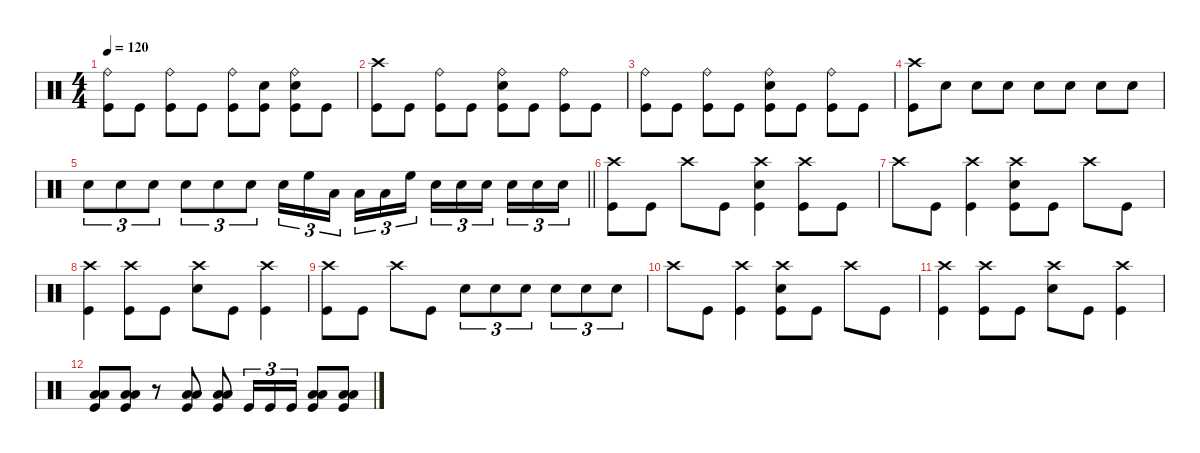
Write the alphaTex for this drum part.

\defaultSystemsLayout 4
\hideDynamics
\bracketExtendMode nobrackets
\singleTrackTrackNamePolicy hidden
\multiTrackTrackNamePolicy hidden
\firstSystemTrackNameMode fullname
\firstSystemTrackNameOrientation horizontal
\otherSystemsTrackNameOrientation horizontal
\track ("Drums" "drm.") {instrument percussion}
\staff {score}
\articulation defaults
\ts (4 4)
\tempo 120
\clef neutral
\ks c
("Kick (hit)" "Ride (bell)").8{dy f beam Down} "Kick (hit)".8{beam Down} ("Kick (hit)" "Ride (bell)").8{beam Down} "Kick (hit)".8{beam Down} ("Kick (hit)" "Ride (bell)").8{beam Down} ("Kick (hit)" "Snare (hit) 2").8{beam Down} ("Kick (hit)" "Snare (hit) 2" "Ride (bell)").8{beam Down} "Kick (hit)".8{beam Down} |
("Crash high (hit)" "Kick (hit)").8{beam Down} "Kick (hit)".8{beam Down} ("Ride (bell)" "Kick (hit)").8{beam Down} "Kick (hit)".8{beam Down} ("Snare (hit) 2" "Ride (bell)" "Kick (hit)").8{beam Down} "Kick (hit)".8{beam Down} ("Ride (bell)" "Kick (hit)").8{beam Down} "Kick (hit)".8{beam Down} |
("Kick (hit)" "Ride (bell)").8{beam Down} "Kick (hit)".8{beam Down} ("Kick (hit)" "Ride (bell)").8{beam Down} "Kick (hit)".8{beam Down} ("Kick (hit)" "Snare (hit) 2" "Ride (bell)").8{beam Down} "Kick (hit)".8{beam Down} ("Kick (hit)" "Ride (bell)").8{beam Down} "Kick (hit)".8{beam Down} |
("Kick (hit)" "Crash high (hit)").8{beam Down} "Snare (hit) 2".8{beam Down} "Snare (hit) 2".8{beam Down} "Snare (hit) 2".8{beam Down} "Snare (hit) 2".8{beam Down} "Snare (hit) 2".8{beam Down} "Snare (hit) 2".8{beam Down} "Snare (hit) 2".8{beam Down} |
\barLineRight lightlight "Snare (hit) 2".8{tu (3 2) beam Down} "Snare (hit) 2".8{tu (3 2) beam Down} "Snare (hit) 2".8{tu (3 2) beam Down} "Snare (hit) 2".8{tu (3 2) beam Down} "Snare (hit) 2".8{tu (3 2) beam Down} "Snare (hit) 2".8{tu (3 2) beam Down} "Snare (hit) 2".16{tu (3 2) beam Down} "High Floor Tom (hit)".16{tu (3 2) beam Down} "Low Tom (hit)".16{tu (3 2) beam Down} "Low Floor Tom (hit)".16{tu (3 2) beam Down} "Low Tom (hit)".16{tu (3 2) beam Down} "High Floor Tom (hit)".16{tu (3 2) beam Down} "Snare (hit) 2".16{tu (3 2) beam Down} "Snare (hit) 2".16{tu (3 2) beam Down} "Snare (hit) 2".16{tu (3 2) beam Down} "Snare (hit) 2".16{tu (3 2) beam Down} "Snare (hit) 2".16{tu (3 2) beam Down} "Snare (hit) 2".16{tu (3 2) beam Down}
|
("Crash high (hit)" "Kick (hit)").8{beam Down} "Kick (hit)".8{beam Down} "Crash high (hit)".8{beam Down} "Kick (hit)".8{beam Down} ("Kick (hit)" "Snare (hit) 2" "Crash high (hit)").4{beam Down} ("Crash high (hit)" "Kick (hit)").8{beam Down} "Kick (hit)".8{beam Down} |
"Crash high (hit)".8{beam Down} "Kick (hit)".8{beam Down} ("Kick (hit)" "Crash high (hit)").4{beam Down} ("Kick (hit)" "Snare (hit) 2" "Crash high (hit)").8{beam Down} "Kick (hit)".8{beam Down} "Crash high (hit)".8{beam Down} "Kick (hit)".8{beam Down} |
("Kick (hit)" "Crash high (hit)").4{beam Down} ("Kick (hit)" "Crash high (hit)").8{beam Down} "Kick (hit)".8{beam Down} ("Snare (hit) 2" "Crash high (hit)").8{beam Down} "Kick (hit)".8{beam Down} ("Kick (hit)" "Crash high (hit)").4{beam Down} |
("Kick (hit)" "Crash high (hit)").8{beam Down} "Kick (hit)".8{beam Down} "Crash high (hit)".8{beam Down} "Kick (hit)".8{beam Down} "Snare (hit) 2".8{tu (3 2) beam Down} "Snare (hit) 2".8{tu (3 2) beam Down} "Snare (hit) 2".8{tu (3 2) beam Down} "Snare (hit) 2".8{tu (3 2) beam Down} "Snare (hit) 2".8{tu (3 2) beam Down} "Snare (hit) 2".8{tu (3 2) beam Down} |
"Crash high (hit)".8{beam Down} "Kick (hit)".8{beam Down} ("Crash high (hit)" "Kick (hit)").4{beam Down} ("Snare (hit) 2" "Crash high (hit)" "Kick (hit)").8{beam Down} "Kick (hit)".8{beam Down} "Crash high (hit)".8{beam Down} "Kick (hit)".8{beam Down} |
("Crash high (hit)" "Kick (hit)").4{beam Down} ("Crash high (hit)" "Kick (hit)").8{beam Down} "Kick (hit)".8{beam Down} ("Snare (hit) 2" "Crash high (hit)").8{beam Down} "Kick (hit)".8{beam Down} ("Crash high (hit)" "Kick (hit)").4{beam Down} |
("Low Floor Tom (hit)" "Low Tom (hit)" "Kick (hit)").8{beam Up} ("Low Floor Tom (hit)" "Low Tom (hit)" "Kick (hit)").8{beam Up} r.8{beam Up} ("Low Floor Tom (hit)" "Low Tom (hit)" "Kick (hit)").8{beam Up} ("Low Floor Tom (hit)" "Low Tom (hit)" "Kick (hit)").8{beam Up} "Kick (hit)".16{tu (3 2) beam Up} "Kick (hit)".16{tu (3 2) beam Up} "Kick (hit)".16{tu (3 2) beam Up} ("Low Floor Tom (hit)" "Low Tom (hit)" "Kick (hit)").8{beam Up} ("Low Floor Tom (hit)" "Low Tom (hit)" "Kick (hit)").8{beam Up}
